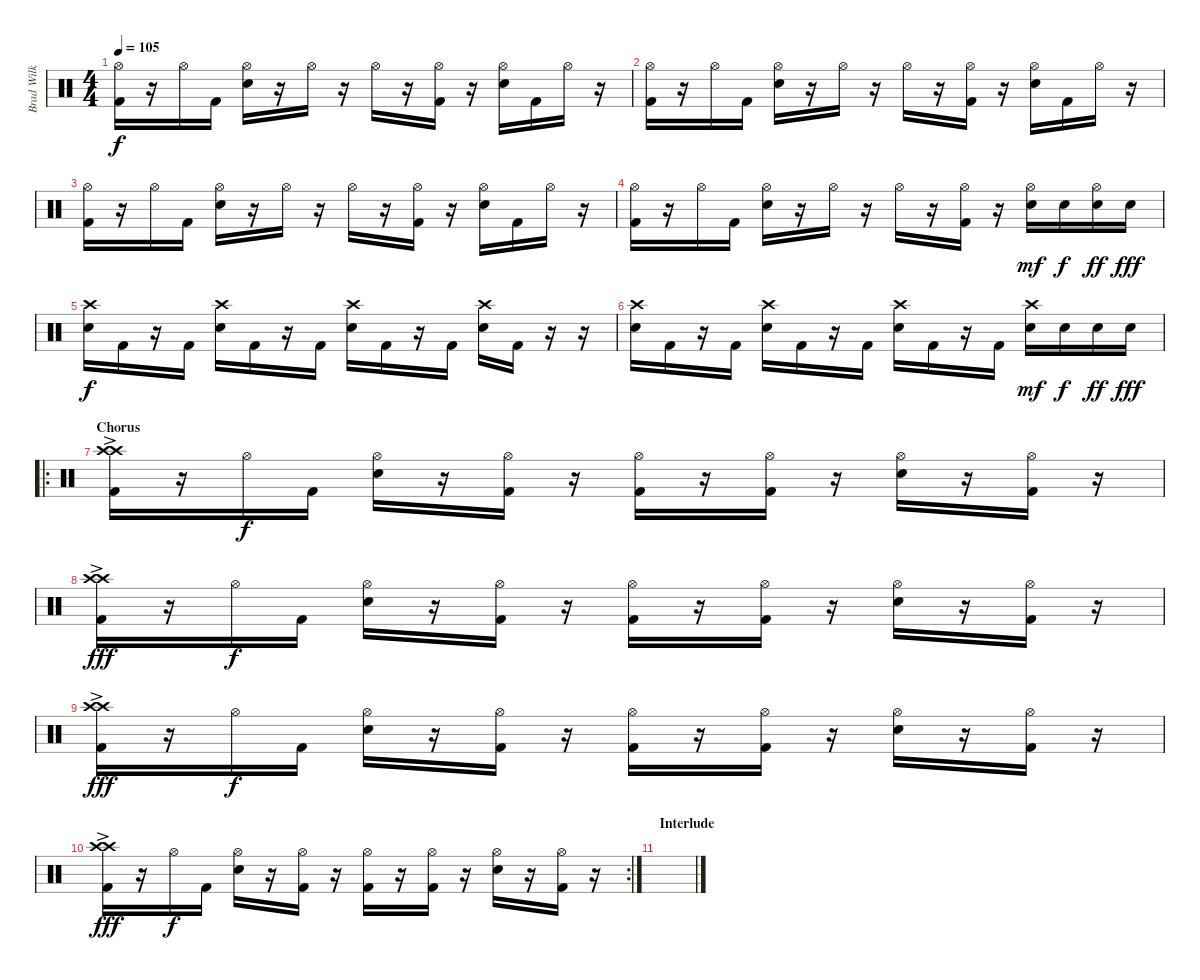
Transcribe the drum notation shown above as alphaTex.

\track ("Brad Wilk - Drums" "Brad Wilk ") {instrument percussion}
\staff {score}
\articulation defaults
\ts (4 4)
\tempo 105
\clef neutral
\ks c
("Hi-Hat (open)" "Kick (hit) 2").16{dy f} r.16 "Hi-Hat (open)".16 "Kick (hit) 2".16 ("Hi-Hat (open)" "Electric Snare (hit)").16 r.16 "Hi-Hat (open)".16 r.16 "Hi-Hat (open)".16 r.16 ("Hi-Hat (open)" "Kick (hit) 2").16 r.16 ("Hi-Hat (open)" "Electric Snare (hit)").16 "Kick (hit) 2".16 "Hi-Hat (open)".16 r.16 |
("Hi-Hat (open)" "Kick (hit) 2").16 r.16 "Hi-Hat (open)".16 "Kick (hit) 2".16 ("Hi-Hat (open)" "Electric Snare (hit)").16 r.16 "Hi-Hat (open)".16 r.16 "Hi-Hat (open)".16 r.16 ("Hi-Hat (open)" "Kick (hit) 2").16 r.16 ("Hi-Hat (open)" "Electric Snare (hit)").16 "Kick (hit) 2".16 "Hi-Hat (open)".16 r.16 |
("Hi-Hat (open)" "Kick (hit) 2").16 r.16 "Hi-Hat (open)".16 "Kick (hit) 2".16 ("Hi-Hat (open)" "Electric Snare (hit)").16 r.16 "Hi-Hat (open)".16 r.16 "Hi-Hat (open)".16 r.16 ("Hi-Hat (open)" "Kick (hit) 2").16 r.16 ("Hi-Hat (open)" "Electric Snare (hit)").16 "Kick (hit) 2".16 "Hi-Hat (open)".16 r.16 |
("Hi-Hat (open)" "Kick (hit) 2").16 r.16 "Hi-Hat (open)".16 "Kick (hit) 2".16 ("Hi-Hat (open)" "Electric Snare (hit)").16 r.16 "Hi-Hat (open)".16 r.16 "Hi-Hat (open)".16 r.16 ("Hi-Hat (open)" "Kick (hit) 2").16 r.16 ("Hi-Hat (open)" "Electric Snare (hit)").16{dy mf} "Electric Snare (hit)".16{dy f} ("Hi-Hat (open)" "Electric Snare (hit)").16{dy ff} "Electric Snare (hit)".16{dy fff} |
("Crash high (hit)" "Electric Snare (hit)").16{dy f} "Kick (hit) 2".16 r.16 "Kick (hit) 2".16 ("Crash high (hit)" "Electric Snare (hit)").16 "Kick (hit) 2".16 r.16 "Kick (hit) 2".16 ("Crash high (hit)" "Electric Snare (hit)").16 "Kick (hit) 2".16 r.16 "Kick (hit) 2".16 ("Crash high (hit)" "Electric Snare (hit)").16 "Kick (hit) 2".16 r.16 r.16 |
("Crash high (hit)" "Electric Snare (hit)").16 "Kick (hit) 2".16 r.16 "Kick (hit) 2".16 ("Crash high (hit)" "Electric Snare (hit)").16 "Kick (hit) 2".16 r.16 "Kick (hit) 2".16 ("Crash high (hit)" "Electric Snare (hit)").16 "Kick (hit) 2".16 r.16 "Kick (hit) 2".16 ("Crash high (hit)" "Electric Snare (hit)").16{dy mf} "Electric Snare (hit)".16{dy f} "Electric Snare (hit)".16{dy ff} "Electric Snare (hit)".16{dy fff} |
\ro
\section ("" "Chorus")
("Crash high (hit)"{ac} "Crash high (hit)"{ac} "Kick (hit) 2").16 r.16 "Hi-Hat (open)".16{dy f} "Kick (hit) 2".16 ("Hi-Hat (open)" "Electric Snare (hit)").16 r.16 ("Hi-Hat (open)" "Kick (hit) 2").16 r.16 ("Hi-Hat (open)" "Kick (hit) 2").16 r.16 ("Hi-Hat (open)" "Kick (hit) 2").16 r.16 ("Hi-Hat (open)" "Electric Snare (hit)").16 r.16 ("Hi-Hat (open)" "Kick (hit) 2").16 r.16 |
("Crash high (hit)"{ac} "Crash high (hit)"{ac} "Kick (hit) 2").16{dy fff} r.16 "Hi-Hat (open)".16{dy f} "Kick (hit) 2".16 ("Hi-Hat (open)" "Electric Snare (hit)").16 r.16 ("Hi-Hat (open)" "Kick (hit) 2").16 r.16 ("Hi-Hat (open)" "Kick (hit) 2").16 r.16 ("Hi-Hat (open)" "Kick (hit) 2").16 r.16 ("Hi-Hat (open)" "Electric Snare (hit)").16 r.16 ("Hi-Hat (open)" "Kick (hit) 2").16 r.16 |
("Crash high (hit)"{ac} "Crash high (hit)"{ac} "Kick (hit) 2").16{dy fff} r.16 "Hi-Hat (open)".16{dy f} "Kick (hit) 2".16 ("Hi-Hat (open)" "Electric Snare (hit)").16 r.16 ("Hi-Hat (open)" "Kick (hit) 2").16 r.16 ("Hi-Hat (open)" "Kick (hit) 2").16 r.16 ("Hi-Hat (open)" "Kick (hit) 2").16 r.16 ("Hi-Hat (open)" "Electric Snare (hit)").16 r.16 ("Hi-Hat (open)" "Kick (hit) 2").16 r.16 |
\rc 2
("Crash high (hit)"{ac} "Crash high (hit)"{ac} "Kick (hit) 2").16{dy fff} r.16 "Hi-Hat (open)".16{dy f} "Kick (hit) 2".16 ("Hi-Hat (open)" "Electric Snare (hit)").16 r.16 ("Hi-Hat (open)" "Kick (hit) 2").16 r.16 ("Hi-Hat (open)" "Kick (hit) 2").16 r.16 ("Hi-Hat (open)" "Kick (hit) 2").16 r.16 ("Hi-Hat (open)" "Electric Snare (hit)").16 r.16 ("Hi-Hat (open)" "Kick (hit) 2").16 r.16 |
\section ("" "Interlude")
